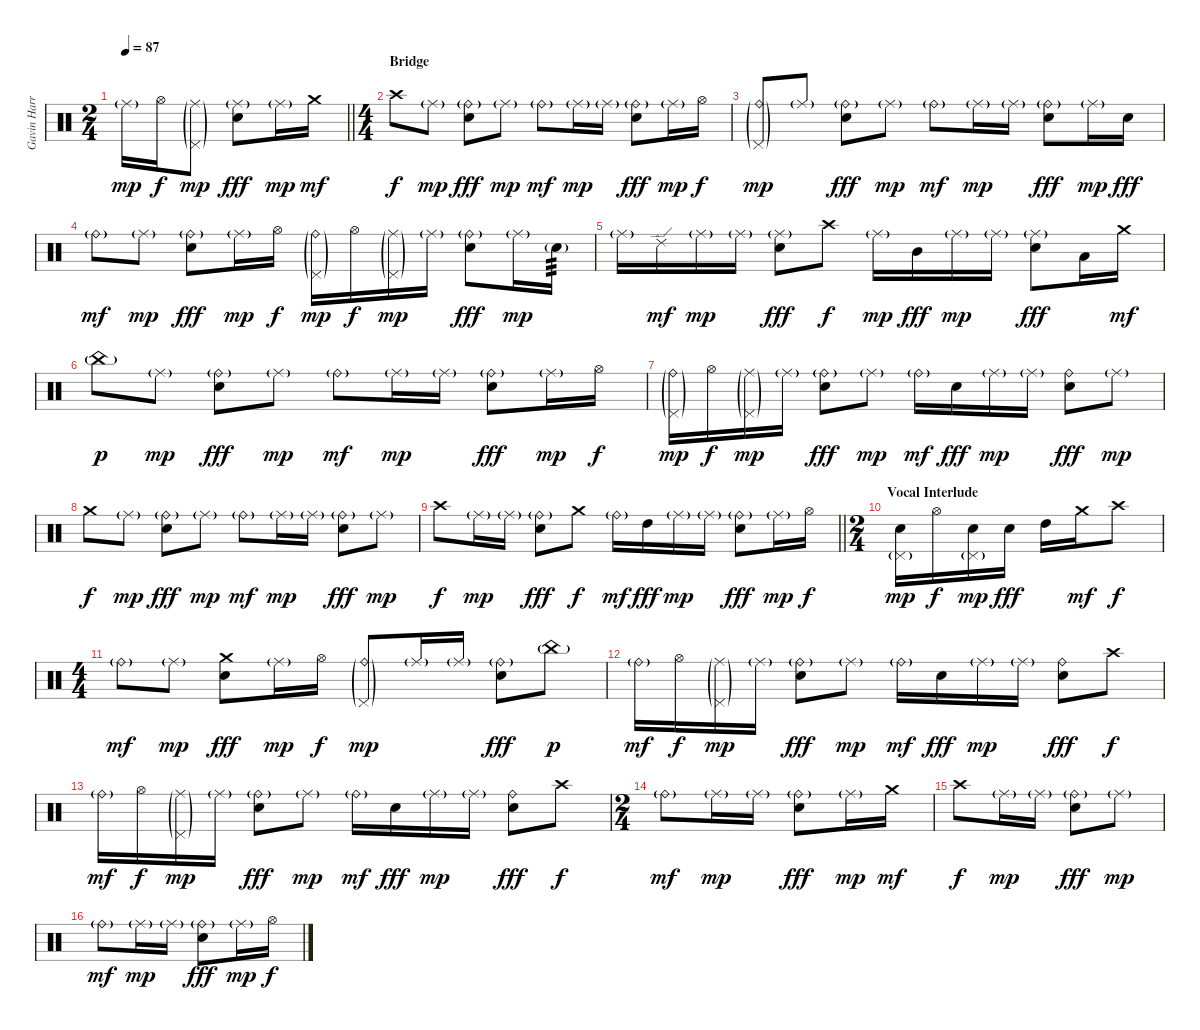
\track ("Gavin Harrison Drums" "Gavin Harr") {instrument percussion}
\staff {score}
\articulation defaults
\ts (2 4)
\tempo 87
\clef neutral
\barLineRight lightlight
\ks aminor "Ride (middle)"{g}.16{dy mp} "Hi-Hat (open)".16{dy f}
("Ride (middle)"{g} "Pedal Hi-Hat (hit)"{g}).8{dy mp} ("Ride (middle)"{g} "Electric Snare (hit)").8{dy fff} "Ride (middle)"{g}.16{dy mp} "Crash medium (hit)".16{dy mf} |
\ts (4 4)
\section ("" "Bridge")
"Crash high (hit)".8{dy f} "Ride (middle)"{g}.8{dy mp} ("Ride (bell)"{g} "Electric Snare (hit)").8{dy fff} "Ride (middle)"{g}.8{dy mp} "Ride (bell)"{g}.8{dy mf} "Ride (middle)"{g}.16{dy mp} "Ride (middle)"{g}.16 ("Ride (bell)"{g} "Electric Snare (hit)").8{dy fff} "Ride (middle)"{g}.16{dy mp} "Hi-Hat (open)".16{dy f} |
("Ride (bell)"{g} "Pedal Hi-Hat (hit)"{g}).8{dy mp} "Ride (middle)"{g}.8 ("Ride (bell)"{g} "Electric Snare (hit)").8{dy fff} "Ride (middle)"{g}.8{dy mp} "Ride (bell)"{g}.8{dy mf} "Ride (middle)"{g}.16{dy mp} "Ride (middle)"{g}.16 ("Ride (bell)"{g} "Electric Snare (hit)").8{dy fff} "Ride (middle)"{g}.16{dy mp} "Electric Snare (hit)".16{dy fff} |
"Ride (bell)"{g}.8{dy mf} "Ride (middle)"{g}.8{dy mp} ("Ride (bell)"{g} "Electric Snare (hit)").8{dy fff} "Ride (middle)"{g}.16{dy mp} "Hi-Hat (open)".16{dy f} ("Ride (bell)"{g} "Pedal Hi-Hat (hit)"{g}).16{dy mp} "Hi-Hat (open)".16{dy f} ("Ride (middle)"{g} "Pedal Hi-Hat (hit)"{g}).16{dy mp} "Ride (middle)"{g}.16 ("Ride (bell)"{g} "Electric Snare (hit)").8{dy fff} "Ride (middle)"{g}.16{dy mp} "Electric Snare (hit)"{g}.16{tp 3} |
"Ride (middle)"{g}.16 "Ride (edge) 2".16{dy mf} "Ride (middle)"{g}.16{dy mp} "Ride (middle)"{g}.16 ("Ride (middle)"{g} "Electric Snare (hit)").8{dy fff} "Crash high (hit)".8{dy f} "Ride (middle)"{g}.16{dy mp} "Mid Tom (hit)".16{dy fff} "Ride (middle)"{g}.16{dy mp} "Ride (middle)"{g}.16 ("Ride (middle)"{g} "Electric Snare (hit)").8{dy fff} "Low Tom (hit)".16 "Crash medium (hit)".16{dy mf} |
"China (hit)"{g}.8{dy p} "Ride (middle)"{g}.8{dy mp} ("Ride (bell)"{g} "Electric Snare (hit)").8{dy fff} "Ride (middle)"{g}.8{dy mp} "Ride (bell)"{g}.8{dy mf} "Ride (middle)"{g}.16{dy mp} "Ride (middle)"{g}.16 ("Ride (bell)"{g} "Electric Snare (hit)").8{dy fff} "Ride (middle)"{g}.16{dy mp} "Hi-Hat (open)".16{dy f} |
("Ride (bell)"{g} "Pedal Hi-Hat (hit)"{g}).16{dy mp} "Hi-Hat (open)".16{dy f} ("Ride (middle)"{g} "Pedal Hi-Hat (hit)"{g}).16{dy mp} "Ride (middle)"{g}.16 ("Ride (bell)"{g} "Electric Snare (hit)").8{dy fff} "Ride (middle)"{g}.8{dy mp} "Ride (bell)"{g}.16{dy mf} "Electric Snare (hit)".16{dy fff} "Ride (middle)"{g}.16{dy mp} "Ride (middle)"{g}.16 ("Ride (bell)" "Electric Snare (hit)").8{dy fff} "Ride (middle)"{g}.8{dy mp} |
"Crash medium (hit)".8{dy f} "Ride (middle)"{g}.8{dy mp} ("Ride (bell)"{g} "Electric Snare (hit)").8{dy fff} "Ride (middle)"{g}.8{dy mp} "Ride (bell)"{g}.8{dy mf} "Ride (middle)"{g}.16{dy mp} "Ride (middle)"{g}.16 ("Ride (bell)"{g} "Electric Snare (hit)").8{dy fff} "Ride (middle)"{g}.8{dy mp} |
\barLineRight lightlight "Crash high (hit)".8{dy f} "Ride (middle)"{g}.16{dy mp} "Ride (middle)"{g}.16
("Ride (bell)"{g} "Electric Snare (hit)").8{dy fff} "Crash medium (hit)".8{dy f} "Ride (bell)"{g}.16{dy mf} "High Tom (hit)".16{dy fff} "Ride (middle)"{g}.16{dy mp} "Ride (middle)"{g}.16 ("Ride (bell)"{g} "Electric Snare (hit)").8{dy fff} "Ride (middle)"{g}.16{dy mp} "Hi-Hat (open)".16{dy f} |
\ts (2 4)
\section ("" "Vocal Interlude")
("Electric Snare (hit)" "Pedal Hi-Hat (hit)"{g}).16{dy mp} "Hi-Hat (open)".16{dy f} ("Electric Snare (hit)" "Pedal Hi-Hat (hit)"{g}).16{dy mp} "Electric Snare (hit)".16{dy fff} "High Tom (hit)".16 "Crash medium (hit)".16{dy mf} "Crash high (hit)".8{dy f} |
\ts (4 4)
"Ride (bell)"{g}.8{dy mf} "Ride (middle)"{g}.8{dy mp} ("Crash medium (hit)" "Electric Snare (hit)").8{dy fff} "Ride (middle)"{g}.16{dy mp} "Hi-Hat (open)".16{dy f} ("Ride (bell)"{g} "Pedal Hi-Hat (hit)"{g}).8{dy mp} "Ride (middle)"{g}.16 "Ride (middle)"{g}.16 ("Ride (bell)"{g} "Electric Snare (hit)").8{dy fff} "China (hit)"{g}.8{dy p} |
"Ride (bell)"{g}.16{dy mf} "Hi-Hat (open)".16{dy f} ("Ride (middle)"{g} "Pedal Hi-Hat (hit)"{g}).16{dy mp} "Ride (middle)"{g}.16 ("Ride (bell)"{g} "Electric Snare (hit)").8{dy fff} "Ride (middle)"{g}.8{dy mp} "Ride (bell)"{g}.16{dy mf} "Electric Snare (hit)".16{dy fff} "Ride (middle)"{g}.16{dy mp} "Ride (middle)"{g}.16 ("Ride (bell)" "Electric Snare (hit)").8{dy fff} "Crash high (hit)".8{dy f} |
"Ride (bell)"{g}.16{dy mf} "Hi-Hat (open)".16{dy f} ("Ride (middle)"{g} "Pedal Hi-Hat (hit)"{g}).16{dy mp} "Ride (middle)"{g}.16 ("Ride (bell)"{g} "Electric Snare (hit)").8{dy fff} "Ride (middle)"{g}.8{dy mp} "Ride (bell)"{g}.16{dy mf} "Electric Snare (hit)".16{dy fff} "Ride (middle)"{g}.16{dy mp} "Ride (middle)"{g}.16 ("Ride (bell)" "Electric Snare (hit)").8{dy fff} "Crash high (hit)".8{dy f} |
\ts (2 4)
"Ride (bell)"{g}.8{dy mf} "Ride (middle)"{g}.16{dy mp} "Ride (middle)"{g}.16 ("Ride (bell)"{g} "Electric Snare (hit)").8{dy fff} "Ride (middle)"{g}.16{dy mp} "Crash medium (hit)".16{dy mf} |
"Crash high (hit)".8{dy f} "Ride (middle)"{g}.16{dy mp} "Ride (middle)"{g}.16 ("Ride (bell)"{g} "Electric Snare (hit)").8{dy fff} "Ride (middle)"{g}.8{dy mp} |
"Ride (bell)"{g}.8{dy mf} "Ride (middle)"{g}.16{dy mp} "Ride (middle)"{g}.16 ("Ride (bell)"{g} "Electric Snare (hit)").8{dy fff} "Ride (middle)"{g}.16{dy mp} "Hi-Hat (open)".16{dy f}
